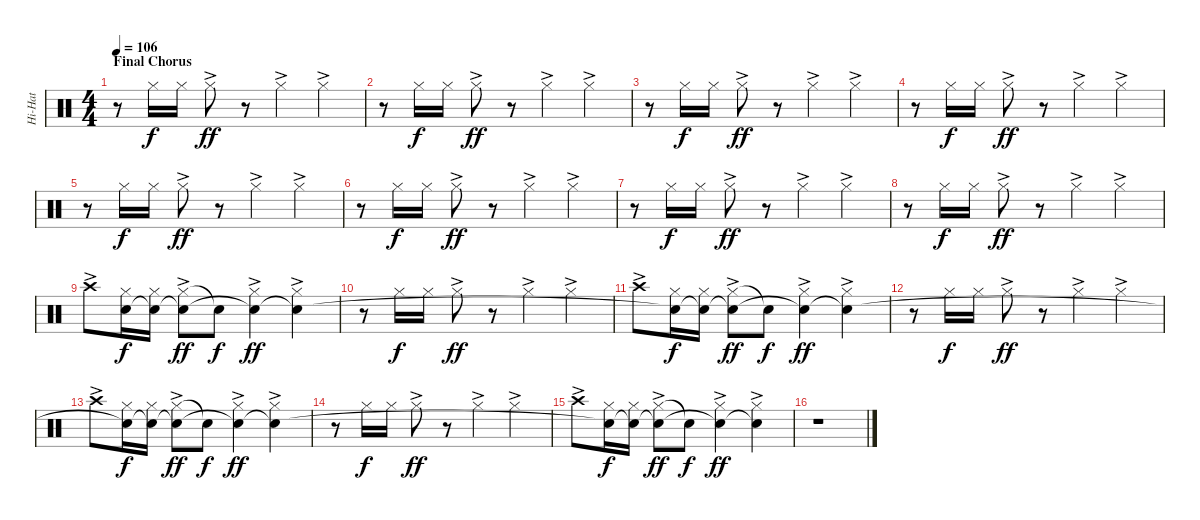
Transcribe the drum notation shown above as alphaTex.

\track ("Hi-Hat" "Hi-Hat") {instrument percussion}
\staff {score}
\articulation defaults
\ts (4 4)
\section ("" "Final Chorus")
\tempo 106
\clef neutral
\ks c
r.8{dy ff} "Hi-Hat (closed)".16{dy f} "Hi-Hat (closed)".16 "Hi-Hat (closed)"{ac}.8{dy ff} r.8 "Hi-Hat (closed)"{ac}.4 "Hi-Hat (closed)"{ac}.4 |
r.8 "Hi-Hat (closed)".16{dy f} "Hi-Hat (closed)".16 "Hi-Hat (closed)"{ac}.8{dy ff} r.8 "Hi-Hat (closed)"{ac}.4 "Hi-Hat (closed)"{ac}.4 |
r.8 "Hi-Hat (closed)".16{dy f} "Hi-Hat (closed)".16 "Hi-Hat (closed)"{ac}.8{dy ff} r.8 "Hi-Hat (closed)"{ac}.4 "Hi-Hat (closed)"{ac}.4 |
r.8 "Hi-Hat (closed)".16{dy f} "Hi-Hat (closed)".16 "Hi-Hat (closed)"{ac}.8{dy ff} r.8 "Hi-Hat (closed)"{ac}.4 "Hi-Hat (closed)"{ac}.4 |
r.8 "Hi-Hat (closed)".16{dy f} "Hi-Hat (closed)".16 "Hi-Hat (closed)"{ac}.8{dy ff} r.8 "Hi-Hat (closed)"{ac}.4 "Hi-Hat (closed)"{ac}.4 |
r.8 "Hi-Hat (closed)".16{dy f} "Hi-Hat (closed)".16 "Hi-Hat (closed)"{ac}.8{dy ff} r.8 "Hi-Hat (closed)"{ac}.4 "Hi-Hat (closed)"{ac}.4 |
r.8 "Hi-Hat (closed)".16{dy f} "Hi-Hat (closed)".16 "Hi-Hat (closed)"{ac}.8{dy ff} r.8 "Hi-Hat (closed)"{ac}.4 "Hi-Hat (closed)"{ac}.4 |
r.8 "Hi-Hat (closed)".16{dy f} "Hi-Hat (closed)".16 "Hi-Hat (closed)"{ac}.8{dy ff} r.8 "Hi-Hat (closed)"{ac}.4 "Hi-Hat (closed)"{ac}.4 |
"Crash high (hit)"{ac}.8 ("Hi-Hat (closed)" "Snare (hit)").16{dy f} ("Hi-Hat (closed)" "Snare (hit)"{t}).16 ("Hi-Hat (closed)"{ac} "Snare (hit)"{t}).8{dy ff} "Snare (hit)"{t}.8{dy f} ("Hi-Hat (closed)"{ac} "Snare (hit)"{t}).4{dy ff} ("Hi-Hat (closed)"{ac} "Snare (hit)"{t}).4 |
r.8 "Hi-Hat (closed)".16{dy f} "Hi-Hat (closed)".16 "Hi-Hat (closed)"{ac}.8{dy ff} r.8 "Hi-Hat (closed)"{ac}.4 "Hi-Hat (closed)"{ac}.4 |
"Crash high (hit)"{ac}.8 ("Hi-Hat (closed)" "Snare (hit)"{t}).16{dy f} ("Hi-Hat (closed)" "Snare (hit)"{t}).16 ("Hi-Hat (closed)"{ac} "Snare (hit)"{t}).8{dy ff} "Snare (hit)"{t}.8{dy f} ("Hi-Hat (closed)"{ac} "Snare (hit)"{t}).4{dy ff} ("Hi-Hat (closed)"{ac} "Snare (hit)"{t}).4 |
r.8 "Hi-Hat (closed)".16{dy f} "Hi-Hat (closed)".16 "Hi-Hat (closed)"{ac}.8{dy ff} r.8 "Hi-Hat (closed)"{ac}.4 "Hi-Hat (closed)"{ac}.4 |
"Crash high (hit)"{ac}.8 ("Hi-Hat (closed)" "Snare (hit)"{t}).16{dy f} ("Hi-Hat (closed)" "Snare (hit)"{t}).16 ("Hi-Hat (closed)"{ac} "Snare (hit)"{t}).8{dy ff} "Snare (hit)"{t}.8{dy f} ("Hi-Hat (closed)"{ac} "Snare (hit)"{t}).4{dy ff} ("Hi-Hat (closed)"{ac} "Snare (hit)"{t}).4 |
r.8 "Hi-Hat (closed)".16{dy f} "Hi-Hat (closed)".16 "Hi-Hat (closed)"{ac}.8{dy ff} r.8 "Hi-Hat (closed)"{ac}.4 "Hi-Hat (closed)"{ac}.4 |
"Crash high (hit)"{ac}.8 ("Hi-Hat (closed)" "Snare (hit)"{t}).16{dy f} ("Hi-Hat (closed)" "Snare (hit)"{t}).16 ("Hi-Hat (closed)"{ac} "Snare (hit)"{t}).8{dy ff} "Snare (hit)"{t}.8{dy f} ("Hi-Hat (closed)"{ac} "Snare (hit)"{t}).4{dy ff} ("Hi-Hat (closed)"{ac} "Snare (hit)"{t}).4 |
r.1
